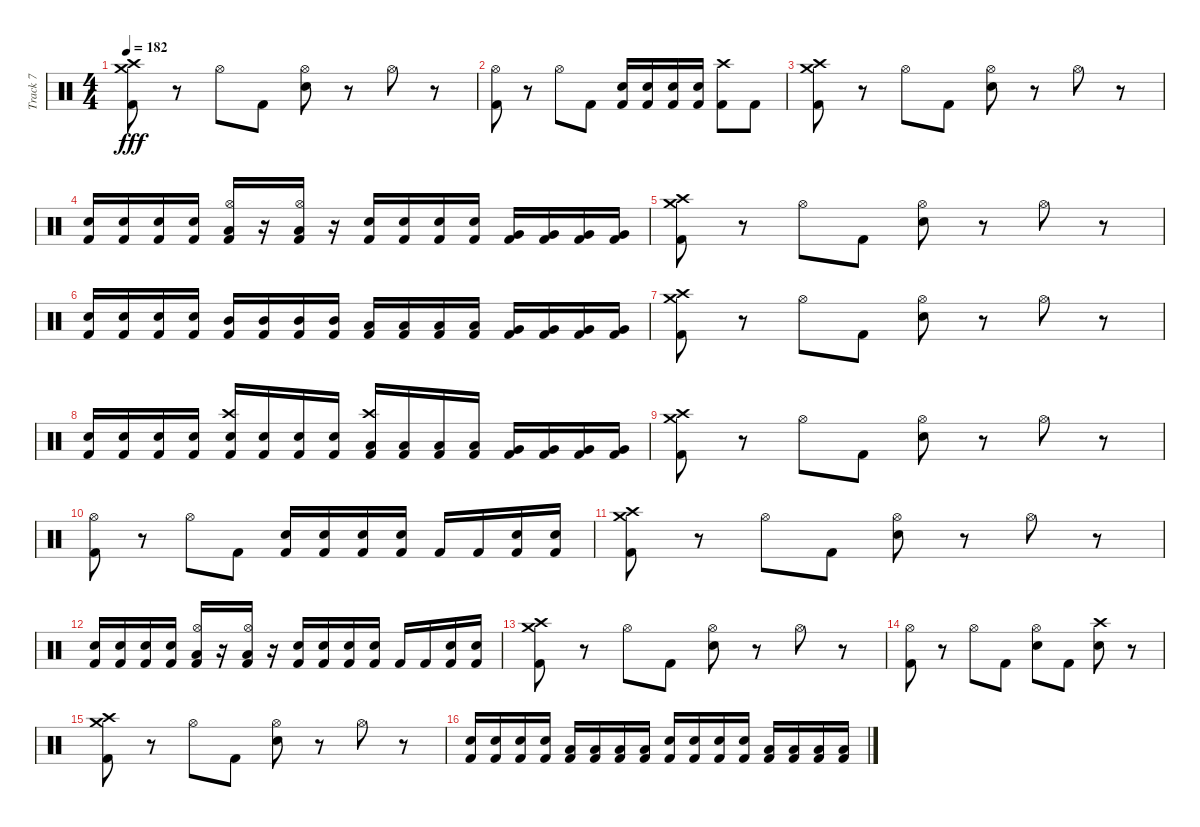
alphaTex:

\track ("Track 7" "Track 7") {instrument percussion}
\staff {score}
\articulation defaults
\ts (4 4)
\tempo 182
\clef neutral
\ks c
("Kick (hit) 2" "Crash medium (hit)" "Crash high (hit)").8{dy fff} r.8 "Hi-Hat (open)".8 "Kick (hit) 2".8 ("Electric Snare (hit)" "Hi-Hat (open)").8 r.8 "Hi-Hat (open)".8 r.8 |
("Kick (hit) 2" "Hi-Hat (open)").8 r.8 "Hi-Hat (open)".8 "Kick (hit) 2".8 ("Kick (hit) 2" "Electric Snare (hit)").16 ("Kick (hit) 2" "Electric Snare (hit)").16 ("Kick (hit) 2" "Electric Snare (hit)").16 ("Kick (hit) 2" "Electric Snare (hit)").16 ("Kick (hit) 2" "Crash high (hit)").8 "Kick (hit) 2".8 |
("Kick (hit) 2" "Crash medium (hit)" "Crash high (hit)").8 r.8 "Hi-Hat (open)".8 "Kick (hit) 2".8 ("Electric Snare (hit)" "Hi-Hat (open)").8 r.8 "Hi-Hat (open)".8 r.8 |
("Kick (hit) 2" "Electric Snare (hit)").16 ("Kick (hit) 2" "Electric Snare (hit)").16 ("Kick (hit) 2" "Electric Snare (hit)").16 ("Kick (hit) 2" "Electric Snare (hit)").16 ("Kick (hit) 2" "Low Tom (hit)" "Hi-Hat (open)").16 r.16 ("Kick (hit) 2" "Low Tom (hit)" "Hi-Hat (open)").16 r.16 ("Kick (hit) 2" "Electric Snare (hit)").16 ("Kick (hit) 2" "Electric Snare (hit)").16 ("Kick (hit) 2" "Electric Snare (hit)").16 ("Kick (hit) 2" "Electric Snare (hit)").16 ("Kick (hit) 2" "Very Low Tom (hit)").16 ("Kick (hit) 2" "Very Low Tom (hit)").16 ("Kick (hit) 2" "Very Low Tom (hit)").16 ("Kick (hit) 2" "Very Low Tom (hit)").16 |
("Kick (hit) 2" "Crash medium (hit)" "Crash high (hit)").8 r.8 "Hi-Hat (open)".8 "Kick (hit) 2".8 ("Electric Snare (hit)" "Hi-Hat (open)").8 r.8 "Hi-Hat (open)".8 r.8 |
("Electric Snare (hit)" "Kick (hit) 2").16 ("Electric Snare (hit)" "Kick (hit) 2").16 ("Electric Snare (hit)" "Kick (hit) 2").16 ("Electric Snare (hit)" "Kick (hit) 2").16 ("Mid Tom (hit)" "Kick (hit) 2").16 ("Mid Tom (hit)" "Kick (hit) 2").16 ("Mid Tom (hit)" "Kick (hit) 2").16 ("Mid Tom (hit)" "Kick (hit) 2").16 ("Kick (hit) 2" "Low Tom (hit)").16 ("Kick (hit) 2" "Low Tom (hit)").16 ("Kick (hit) 2" "Low Tom (hit)").16 ("Kick (hit) 2" "Low Tom (hit)").16 ("Kick (hit) 2" "Very Low Tom (hit)").16 ("Kick (hit) 2" "Very Low Tom (hit)").16 ("Kick (hit) 2" "Very Low Tom (hit)").16 ("Kick (hit) 2" "Very Low Tom (hit)").16 |
("Kick (hit) 2" "Crash medium (hit)" "Crash high (hit)").8 r.8 "Hi-Hat (open)".8 "Kick (hit) 2".8 ("Electric Snare (hit)" "Hi-Hat (open)").8 r.8 "Hi-Hat (open)".8 r.8 |
("Kick (hit) 2" "Electric Snare (hit)").16 ("Kick (hit) 2" "Electric Snare (hit)").16 ("Kick (hit) 2" "Electric Snare (hit)").16 ("Kick (hit) 2" "Electric Snare (hit)").16 ("Kick (hit) 2" "Electric Snare (hit)" "Crash high (hit)").16 ("Kick (hit) 2" "Electric Snare (hit)").16 ("Kick (hit) 2" "Electric Snare (hit)").16 ("Kick (hit) 2" "Electric Snare (hit)").16 ("Kick (hit) 2" "Low Tom (hit)" "Crash high (hit)").16 ("Kick (hit) 2" "Low Tom (hit)").16 ("Kick (hit) 2" "Low Tom (hit)").16 ("Kick (hit) 2" "Low Tom (hit)").16 ("Kick (hit) 2" "Very Low Tom (hit)").16 ("Kick (hit) 2" "Very Low Tom (hit)").16 ("Kick (hit) 2" "Very Low Tom (hit)").16 ("Kick (hit) 2" "Very Low Tom (hit)").16 |
("Kick (hit) 2" "Crash medium (hit)" "Crash high (hit)").8 r.8 "Hi-Hat (open)".8 "Kick (hit) 2".8 ("Electric Snare (hit)" "Hi-Hat (open)").8 r.8 "Hi-Hat (open)".8 r.8 |
("Kick (hit) 2" "Hi-Hat (open)").8 r.8 "Hi-Hat (open)".8 "Kick (hit) 2".8 ("Kick (hit) 2" "Electric Snare (hit)").16 ("Kick (hit) 2" "Electric Snare (hit)").16 ("Kick (hit) 2" "Electric Snare (hit)").16 ("Kick (hit) 2" "Electric Snare (hit)").16 "Kick (hit) 2".16 "Kick (hit) 2".16 ("Kick (hit) 2" "Electric Snare (hit)").16 ("Kick (hit) 2" "Electric Snare (hit)").16 |
("Kick (hit) 2" "Crash medium (hit)" "Crash high (hit)").8 r.8 "Hi-Hat (open)".8 "Kick (hit) 2".8 ("Electric Snare (hit)" "Hi-Hat (open)").8 r.8 "Hi-Hat (open)".8 r.8 |
("Kick (hit) 2" "Electric Snare (hit)").16 ("Kick (hit) 2" "Electric Snare (hit)").16 ("Kick (hit) 2" "Electric Snare (hit)").16 ("Kick (hit) 2" "Electric Snare (hit)").16 ("Kick (hit) 2" "Low Tom (hit)" "Hi-Hat (open)").16 r.16 ("Kick (hit) 2" "Low Tom (hit)" "Hi-Hat (open)").16 r.16 ("Kick (hit) 2" "Electric Snare (hit)").16 ("Kick (hit) 2" "Electric Snare (hit)").16 ("Kick (hit) 2" "Electric Snare (hit)").16 ("Kick (hit) 2" "Electric Snare (hit)").16 "Kick (hit) 2".16 "Kick (hit) 2".16 ("Kick (hit) 2" "Electric Snare (hit)").16 ("Kick (hit) 2" "Electric Snare (hit)").16 |
("Kick (hit) 2" "Crash medium (hit)" "Crash high (hit)").8 r.8 "Hi-Hat (open)".8 "Kick (hit) 2".8 ("Electric Snare (hit)" "Hi-Hat (open)").8 r.8 "Hi-Hat (open)".8 r.8 |
("Kick (hit) 2" "Hi-Hat (open)").8 r.8 "Hi-Hat (open)".8 "Kick (hit) 2".8 ("Electric Snare (hit)" "Hi-Hat (open)").8 "Kick (hit) 2".8 ("Electric Snare (hit)" "Crash high (hit)").8 r.8 |
("Kick (hit) 2" "Crash medium (hit)" "Crash high (hit)").8 r.8 "Hi-Hat (open)".8 "Kick (hit) 2".8 ("Electric Snare (hit)" "Hi-Hat (open)").8 r.8 "Hi-Hat (open)".8 r.8 |
("Kick (hit) 2" "Electric Snare (hit)").16 ("Kick (hit) 2" "Electric Snare (hit)").16 ("Kick (hit) 2" "Electric Snare (hit)").16 ("Kick (hit) 2" "Electric Snare (hit)").16 ("Kick (hit) 2" "Low Tom (hit)").16 ("Kick (hit) 2" "Low Tom (hit)").16 ("Kick (hit) 2" "Low Tom (hit)").16 ("Kick (hit) 2" "Low Tom (hit)").16 ("Kick (hit) 2" "Electric Snare (hit)").16 ("Kick (hit) 2" "Electric Snare (hit)").16 ("Kick (hit) 2" "Electric Snare (hit)").16 ("Kick (hit) 2" "Electric Snare (hit)").16 ("Kick (hit) 2" "Low Tom (hit)").16 ("Kick (hit) 2" "Low Tom (hit)").16 ("Kick (hit) 2" "Low Tom (hit)").16 ("Kick (hit) 2" "Low Tom (hit)").16
